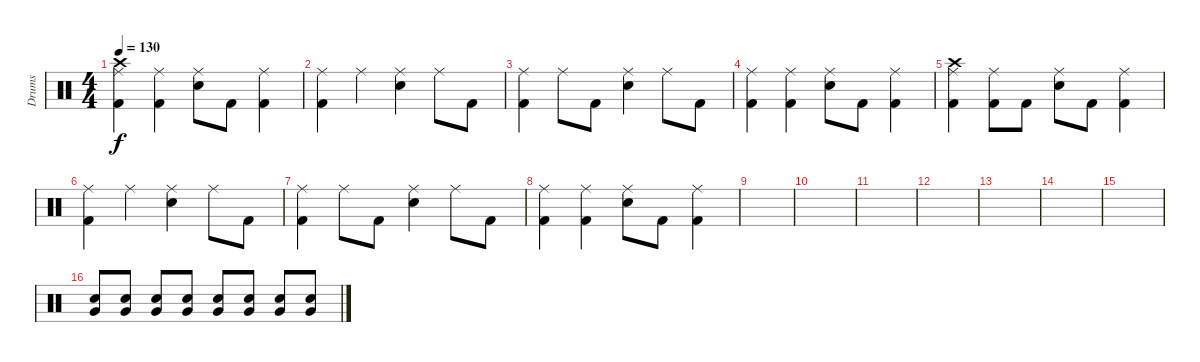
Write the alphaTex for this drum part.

\track ("Drums" "Drums") {instrument percussion}
\staff {score}
\articulation defaults
\ts (4 4)
\tempo 130
\clef neutral
\ks c
("Ride (middle)" "Crash high (hit)" "Kick (hit) 2").4{dy f} ("Ride (middle)" "Kick (hit) 2").4 ("Ride (middle)" "Electric Snare (hit)").8 "Kick (hit) 2".8 ("Ride (middle)" "Kick (hit) 2").4 |
("Ride (middle)" "Kick (hit) 2").4 "Ride (middle)".4 ("Ride (middle)" "Electric Snare (hit)").4 "Ride (middle)".8 "Kick (hit) 2".8 |
("Ride (middle)" "Kick (hit) 2").4 "Ride (middle)".8 "Kick (hit) 2".8 ("Ride (middle)" "Electric Snare (hit)").4 "Ride (middle)".8 "Kick (hit) 2".8 |
("Ride (middle)" "Kick (hit) 2").4 ("Ride (middle)" "Kick (hit) 2").4 ("Ride (middle)" "Electric Snare (hit)").8 "Kick (hit) 2".8 ("Ride (middle)" "Kick (hit) 2").4 |
("Ride (middle)" "Crash high (hit)" "Kick (hit) 2").4 ("Ride (middle)" "Kick (hit) 2").8 "Kick (hit) 2".8 ("Ride (middle)" "Electric Snare (hit)").8 "Kick (hit) 2".8 ("Ride (middle)" "Kick (hit) 2").4 |
("Ride (middle)" "Kick (hit) 2").4 "Ride (middle)".4 ("Ride (middle)" "Electric Snare (hit)").4 "Ride (middle)".8 "Kick (hit) 2".8 |
("Ride (middle)" "Kick (hit) 2").4 "Ride (middle)".8 "Kick (hit) 2".8 ("Ride (middle)" "Electric Snare (hit)").4 "Ride (middle)".8 "Kick (hit) 2".8 |
("Ride (middle)" "Kick (hit) 2").4 ("Ride (middle)" "Kick (hit) 2").4 ("Ride (middle)" "Electric Snare (hit)").8 "Kick (hit) 2".8 ("Ride (middle)" "Kick (hit) 2").4 |
|
|
|
|
|
|
|
("Very Low Tom (hit)" "Electric Snare (hit)").8 ("Very Low Tom (hit)" "Electric Snare (hit)").8 ("Very Low Tom (hit)" "Electric Snare (hit)").8 ("Very Low Tom (hit)" "Electric Snare (hit)").8 ("Very Low Tom (hit)" "Electric Snare (hit)").8 ("Very Low Tom (hit)" "Electric Snare (hit)").8 ("Very Low Tom (hit)" "Electric Snare (hit)").8 ("Very Low Tom (hit)" "Electric Snare (hit)").8
